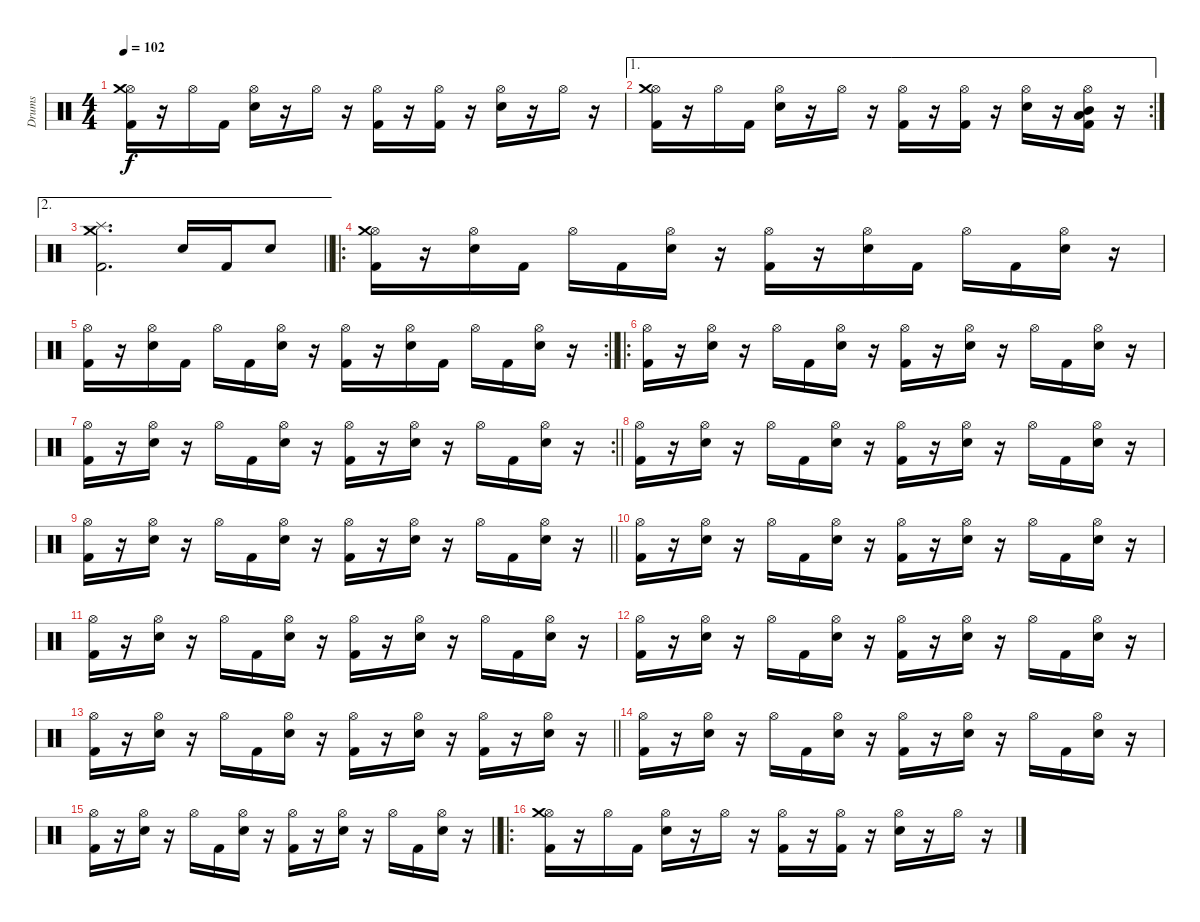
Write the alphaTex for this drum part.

\track ("Drums" "Drums") {instrument percussion}
\staff {score}
\articulation defaults
\ts (4 4)
\tempo 102
\clef neutral
\ks c
("Hi-Hat (open)" "Crash medium (hit)" "Kick (hit) 2").16{dy f} r.16 "Hi-Hat (open)".16 "Kick (hit) 2".16 ("Hi-Hat (open)" "Electric Snare (hit)").16 r.16 "Hi-Hat (open)".16 r.16 ("Hi-Hat (open)" "Kick (hit) 2").16 r.16 ("Hi-Hat (open)" "Kick (hit) 2").16 r.16 ("Hi-Hat (open)" "Electric Snare (hit)").16 r.16 "Hi-Hat (open)".16 r.16 |
\ae 1
\rc 2
("Hi-Hat (open)" "Crash medium (hit)" "Kick (hit) 2").16 r.16 "Hi-Hat (open)".16 "Kick (hit) 2".16 ("Hi-Hat (open)" "Electric Snare (hit)").16 r.16 "Hi-Hat (open)".16 r.16 ("Hi-Hat (open)" "Kick (hit) 2").16 r.16 ("Hi-Hat (open)" "Kick (hit) 2").16 r.16 ("Hi-Hat (open)" "Electric Snare (hit)").16 r.16 ("Hi-Hat (open)" "Kick (hit) 2" "Mid Tom (hit)" "Low Tom (hit)").16 r.16 |
\ae 2
\barLineRight lightlight
("Splash (hit)" "Crash medium (hit)" "Kick (hit) 2").2{d} "Electric Snare (hit)".16 "Kick (hit) 2".16 "Electric Snare (hit)".8 |
\ro
("Hi-Hat (open)" "Crash medium (hit)" "Kick (hit) 2").16 r.16 ("Hi-Hat (open)" "Electric Snare (hit)").16 "Kick (hit) 2".16 "Hi-Hat (open)".16 "Kick (hit) 2".16 ("Hi-Hat (open)" "Electric Snare (hit)").16 r.16 ("Hi-Hat (open)" "Kick (hit) 2").16 r.16 ("Hi-Hat (open)" "Electric Snare (hit)").16 "Kick (hit) 2".16 "Hi-Hat (open)".16 "Kick (hit) 2".16 ("Hi-Hat (open)" "Electric Snare (hit)").16 r.16 |
\rc 2
\barLineRight lightlight
("Hi-Hat (open)" "Kick (hit) 2").16 r.16 ("Hi-Hat (open)" "Electric Snare (hit)").16 "Kick (hit) 2".16 "Hi-Hat (open)".16 "Kick (hit) 2".16 ("Hi-Hat (open)" "Electric Snare (hit)").16 r.16 ("Hi-Hat (open)" "Kick (hit) 2").16 r.16 ("Hi-Hat (open)" "Electric Snare (hit)").16 "Kick (hit) 2".16 "Hi-Hat (open)".16 "Kick (hit) 2".16 ("Hi-Hat (open)" "Electric Snare (hit)").16 r.16 |
\ro
("Hi-Hat (open)" "Kick (hit) 2").16 r.16 ("Hi-Hat (open)" "Electric Snare (hit)").16 r.16 "Hi-Hat (open)".16 "Kick (hit) 2".16 ("Hi-Hat (open)" "Electric Snare (hit)").16 r.16 ("Hi-Hat (open)" "Kick (hit) 2").16 r.16 ("Hi-Hat (open)" "Electric Snare (hit)").16 r.16 "Hi-Hat (open)".16 "Kick (hit) 2".16 ("Hi-Hat (open)" "Electric Snare (hit)").16 r.16 |
\rc 2
\barLineRight lightlight
("Hi-Hat (open)" "Kick (hit) 2").16 r.16 ("Hi-Hat (open)" "Electric Snare (hit)").16 r.16 "Hi-Hat (open)".16 "Kick (hit) 2".16 ("Hi-Hat (open)" "Electric Snare (hit)").16 r.16 ("Hi-Hat (open)" "Kick (hit) 2").16 r.16 ("Hi-Hat (open)" "Electric Snare (hit)").16 r.16 "Hi-Hat (open)".16 "Kick (hit) 2".16 ("Hi-Hat (open)" "Electric Snare (hit)").16 r.16 |
("Hi-Hat (open)" "Kick (hit) 2").16 r.16 ("Hi-Hat (open)" "Electric Snare (hit)").16 r.16 "Hi-Hat (open)".16 "Kick (hit) 2".16 ("Hi-Hat (open)" "Electric Snare (hit)").16 r.16 ("Hi-Hat (open)" "Kick (hit) 2").16 r.16 ("Hi-Hat (open)" "Electric Snare (hit)").16 r.16 "Hi-Hat (open)".16 "Kick (hit) 2".16 ("Hi-Hat (open)" "Electric Snare (hit)").16 r.16 |
\barLineRight lightlight
("Hi-Hat (open)" "Kick (hit) 2").16 r.16 ("Hi-Hat (open)" "Electric Snare (hit)").16 r.16 "Hi-Hat (open)".16 "Kick (hit) 2".16 ("Hi-Hat (open)" "Electric Snare (hit)").16 r.16 ("Hi-Hat (open)" "Kick (hit) 2").16 r.16 ("Hi-Hat (open)" "Electric Snare (hit)").16 r.16 "Hi-Hat (open)".16 "Kick (hit) 2".16 ("Hi-Hat (open)" "Electric Snare (hit)").16 r.16 |
("Hi-Hat (open)" "Kick (hit) 2").16 r.16 ("Hi-Hat (open)" "Electric Snare (hit)").16 r.16 "Hi-Hat (open)".16 "Kick (hit) 2".16 ("Hi-Hat (open)" "Electric Snare (hit)").16 r.16 ("Hi-Hat (open)" "Kick (hit) 2").16 r.16 ("Hi-Hat (open)" "Electric Snare (hit)").16 r.16 "Hi-Hat (open)".16 "Kick (hit) 2".16 ("Hi-Hat (open)" "Electric Snare (hit)").16 r.16 |
("Hi-Hat (open)" "Kick (hit) 2").16 r.16 ("Hi-Hat (open)" "Electric Snare (hit)").16 r.16 "Hi-Hat (open)".16 "Kick (hit) 2".16 ("Hi-Hat (open)" "Electric Snare (hit)").16 r.16 ("Hi-Hat (open)" "Kick (hit) 2").16 r.16 ("Hi-Hat (open)" "Electric Snare (hit)").16 r.16 "Hi-Hat (open)".16 "Kick (hit) 2".16 ("Hi-Hat (open)" "Electric Snare (hit)").16 r.16 |
("Hi-Hat (open)" "Kick (hit) 2").16 r.16 ("Hi-Hat (open)" "Electric Snare (hit)").16 r.16 "Hi-Hat (open)".16 "Kick (hit) 2".16 ("Hi-Hat (open)" "Electric Snare (hit)").16 r.16 ("Hi-Hat (open)" "Kick (hit) 2").16 r.16 ("Hi-Hat (open)" "Electric Snare (hit)").16 r.16 "Hi-Hat (open)".16 "Kick (hit) 2".16 ("Hi-Hat (open)" "Electric Snare (hit)").16 r.16 |
\barLineRight lightlight
("Hi-Hat (open)" "Kick (hit) 2").16 r.16 ("Hi-Hat (open)" "Electric Snare (hit)").16 r.16 "Hi-Hat (open)".16 "Kick (hit) 2".16 ("Hi-Hat (open)" "Electric Snare (hit)").16 r.16 ("Hi-Hat (open)" "Kick (hit) 2").16 r.16 ("Hi-Hat (open)" "Electric Snare (hit)").16 r.16 ("Hi-Hat (open)" "Kick (hit) 2").16 r.16 ("Hi-Hat (open)" "Electric Snare (hit)").16 r.16 |
("Hi-Hat (open)" "Kick (hit) 2").16 r.16 ("Hi-Hat (open)" "Electric Snare (hit)").16 r.16 "Hi-Hat (open)".16 "Kick (hit) 2".16 ("Hi-Hat (open)" "Electric Snare (hit)").16 r.16 ("Hi-Hat (open)" "Kick (hit) 2").16 r.16 ("Hi-Hat (open)" "Electric Snare (hit)").16 r.16 "Hi-Hat (open)".16 "Kick (hit) 2".16 ("Hi-Hat (open)" "Electric Snare (hit)").16 r.16 |
\barLineRight lightlight
("Hi-Hat (open)" "Kick (hit) 2").16 r.16 ("Hi-Hat (open)" "Electric Snare (hit)").16 r.16 "Hi-Hat (open)".16 "Kick (hit) 2".16 ("Hi-Hat (open)" "Electric Snare (hit)").16 r.16 ("Hi-Hat (open)" "Kick (hit) 2").16 r.16 ("Hi-Hat (open)" "Electric Snare (hit)").16 r.16 "Hi-Hat (open)".16 "Kick (hit) 2".16 ("Hi-Hat (open)" "Electric Snare (hit)").16 r.16 |
\ro
("Hi-Hat (open)" "Crash medium (hit)" "Kick (hit) 2").16 r.16 "Hi-Hat (open)".16 "Kick (hit) 2".16 ("Hi-Hat (open)" "Electric Snare (hit)").16 r.16 "Hi-Hat (open)".16 r.16 ("Hi-Hat (open)" "Kick (hit) 2").16 r.16 ("Hi-Hat (open)" "Kick (hit) 2").16 r.16 ("Hi-Hat (open)" "Electric Snare (hit)").16 r.16 "Hi-Hat (open)".16 r.16
